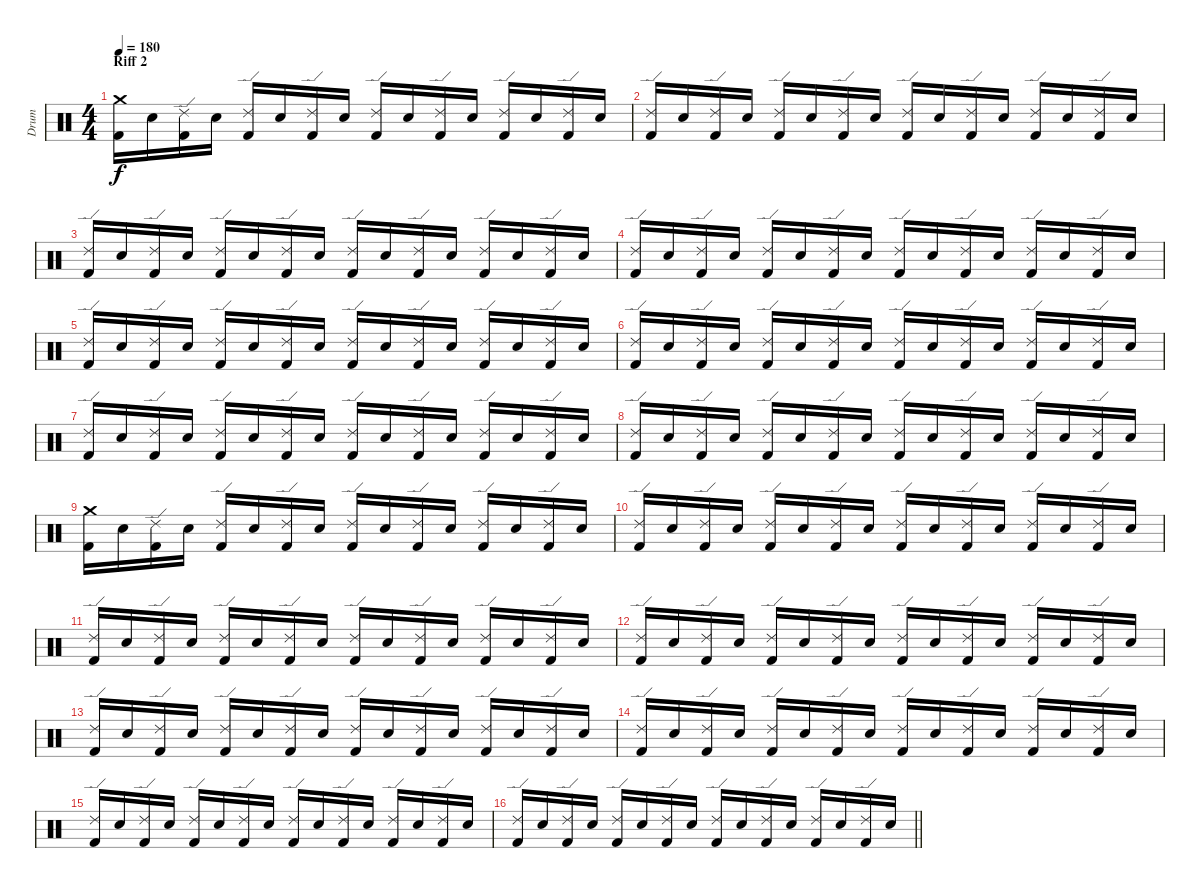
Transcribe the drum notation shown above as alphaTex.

\track ("Drum" "Drum") {instrument percussion}
\staff {score}
\articulation defaults
\ts (4 4)
\section ("" "Riff 2")
\tempo 180
\clef neutral
\ks c
("Crash medium (hit)" "Kick (hit) 2").16{dy f} "Electric Snare (hit)".16 ("Ride (edge) 2" "Kick (hit) 2").16 "Electric Snare (hit)".16 ("Ride (edge) 2" "Kick (hit) 2").16 "Electric Snare (hit)".16 ("Ride (edge) 2" "Kick (hit) 2").16 "Electric Snare (hit)".16 ("Ride (edge) 2" "Kick (hit) 2").16 "Electric Snare (hit)".16 ("Ride (edge) 2" "Kick (hit) 2").16 "Electric Snare (hit)".16 ("Ride (edge) 2" "Kick (hit) 2").16 "Electric Snare (hit)".16 ("Ride (edge) 2" "Kick (hit) 2").16 "Electric Snare (hit)".16 |
("Ride (edge) 2" "Kick (hit) 2").16 "Electric Snare (hit)".16 ("Ride (edge) 2" "Kick (hit) 2").16 "Electric Snare (hit)".16 ("Ride (edge) 2" "Kick (hit) 2").16 "Electric Snare (hit)".16 ("Ride (edge) 2" "Kick (hit) 2").16 "Electric Snare (hit)".16 ("Ride (edge) 2" "Kick (hit) 2").16 "Electric Snare (hit)".16 ("Ride (edge) 2" "Kick (hit) 2").16 "Electric Snare (hit)".16 ("Ride (edge) 2" "Kick (hit) 2").16 "Electric Snare (hit)".16 ("Ride (edge) 2" "Kick (hit) 2").16 "Electric Snare (hit)".16 |
("Ride (edge) 2" "Kick (hit) 2").16 "Electric Snare (hit)".16 ("Ride (edge) 2" "Kick (hit) 2").16 "Electric Snare (hit)".16 ("Ride (edge) 2" "Kick (hit) 2").16 "Electric Snare (hit)".16 ("Ride (edge) 2" "Kick (hit) 2").16 "Electric Snare (hit)".16 ("Ride (edge) 2" "Kick (hit) 2").16 "Electric Snare (hit)".16 ("Ride (edge) 2" "Kick (hit) 2").16 "Electric Snare (hit)".16 ("Ride (edge) 2" "Kick (hit) 2").16 "Electric Snare (hit)".16 ("Ride (edge) 2" "Kick (hit) 2").16 "Electric Snare (hit)".16 |
("Ride (edge) 2" "Kick (hit) 2").16 "Electric Snare (hit)".16 ("Ride (edge) 2" "Kick (hit) 2").16 "Electric Snare (hit)".16 ("Ride (edge) 2" "Kick (hit) 2").16 "Electric Snare (hit)".16 ("Ride (edge) 2" "Kick (hit) 2").16 "Electric Snare (hit)".16 ("Ride (edge) 2" "Kick (hit) 2").16 "Electric Snare (hit)".16 ("Ride (edge) 2" "Kick (hit) 2").16 "Electric Snare (hit)".16 ("Ride (edge) 2" "Kick (hit) 2").16 "Electric Snare (hit)".16 ("Ride (edge) 2" "Kick (hit) 2").16 "Electric Snare (hit)".16 |
("Ride (edge) 2" "Kick (hit) 2").16 "Electric Snare (hit)".16 ("Ride (edge) 2" "Kick (hit) 2").16 "Electric Snare (hit)".16 ("Ride (edge) 2" "Kick (hit) 2").16 "Electric Snare (hit)".16 ("Ride (edge) 2" "Kick (hit) 2").16 "Electric Snare (hit)".16 ("Ride (edge) 2" "Kick (hit) 2").16 "Electric Snare (hit)".16 ("Ride (edge) 2" "Kick (hit) 2").16 "Electric Snare (hit)".16 ("Ride (edge) 2" "Kick (hit) 2").16 "Electric Snare (hit)".16 ("Ride (edge) 2" "Kick (hit) 2").16 "Electric Snare (hit)".16 |
("Ride (edge) 2" "Kick (hit) 2").16 "Electric Snare (hit)".16 ("Ride (edge) 2" "Kick (hit) 2").16 "Electric Snare (hit)".16 ("Ride (edge) 2" "Kick (hit) 2").16 "Electric Snare (hit)".16 ("Ride (edge) 2" "Kick (hit) 2").16 "Electric Snare (hit)".16 ("Ride (edge) 2" "Kick (hit) 2").16 "Electric Snare (hit)".16 ("Ride (edge) 2" "Kick (hit) 2").16 "Electric Snare (hit)".16 ("Ride (edge) 2" "Kick (hit) 2").16 "Electric Snare (hit)".16 ("Ride (edge) 2" "Kick (hit) 2").16 "Electric Snare (hit)".16 |
("Ride (edge) 2" "Kick (hit) 2").16 "Electric Snare (hit)".16 ("Ride (edge) 2" "Kick (hit) 2").16 "Electric Snare (hit)".16 ("Ride (edge) 2" "Kick (hit) 2").16 "Electric Snare (hit)".16 ("Ride (edge) 2" "Kick (hit) 2").16 "Electric Snare (hit)".16 ("Ride (edge) 2" "Kick (hit) 2").16 "Electric Snare (hit)".16 ("Ride (edge) 2" "Kick (hit) 2").16 "Electric Snare (hit)".16 ("Ride (edge) 2" "Kick (hit) 2").16 "Electric Snare (hit)".16 ("Ride (edge) 2" "Kick (hit) 2").16 "Electric Snare (hit)".16 |
("Ride (edge) 2" "Kick (hit) 2").16 "Electric Snare (hit)".16 ("Ride (edge) 2" "Kick (hit) 2").16 "Electric Snare (hit)".16 ("Ride (edge) 2" "Kick (hit) 2").16 "Electric Snare (hit)".16 ("Ride (edge) 2" "Kick (hit) 2").16 "Electric Snare (hit)".16 ("Ride (edge) 2" "Kick (hit) 2").16 "Electric Snare (hit)".16 ("Ride (edge) 2" "Kick (hit) 2").16 "Electric Snare (hit)".16 ("Ride (edge) 2" "Kick (hit) 2").16 "Electric Snare (hit)".16 ("Ride (edge) 2" "Kick (hit) 2").16 "Electric Snare (hit)".16 |
("Crash medium (hit)" "Kick (hit) 2").16 "Electric Snare (hit)".16 ("Ride (edge) 2" "Kick (hit) 2").16 "Electric Snare (hit)".16 ("Ride (edge) 2" "Kick (hit) 2").16 "Electric Snare (hit)".16 ("Ride (edge) 2" "Kick (hit) 2").16 "Electric Snare (hit)".16 ("Ride (edge) 2" "Kick (hit) 2").16 "Electric Snare (hit)".16 ("Ride (edge) 2" "Kick (hit) 2").16 "Electric Snare (hit)".16 ("Ride (edge) 2" "Kick (hit) 2").16 "Electric Snare (hit)".16 ("Ride (edge) 2" "Kick (hit) 2").16 "Electric Snare (hit)".16 |
("Ride (edge) 2" "Kick (hit) 2").16 "Electric Snare (hit)".16 ("Ride (edge) 2" "Kick (hit) 2").16 "Electric Snare (hit)".16 ("Ride (edge) 2" "Kick (hit) 2").16 "Electric Snare (hit)".16 ("Ride (edge) 2" "Kick (hit) 2").16 "Electric Snare (hit)".16 ("Ride (edge) 2" "Kick (hit) 2").16 "Electric Snare (hit)".16 ("Ride (edge) 2" "Kick (hit) 2").16 "Electric Snare (hit)".16 ("Ride (edge) 2" "Kick (hit) 2").16 "Electric Snare (hit)".16 ("Ride (edge) 2" "Kick (hit) 2").16 "Electric Snare (hit)".16 |
("Ride (edge) 2" "Kick (hit) 2").16 "Electric Snare (hit)".16 ("Ride (edge) 2" "Kick (hit) 2").16 "Electric Snare (hit)".16 ("Ride (edge) 2" "Kick (hit) 2").16 "Electric Snare (hit)".16 ("Ride (edge) 2" "Kick (hit) 2").16 "Electric Snare (hit)".16 ("Ride (edge) 2" "Kick (hit) 2").16 "Electric Snare (hit)".16 ("Ride (edge) 2" "Kick (hit) 2").16 "Electric Snare (hit)".16 ("Ride (edge) 2" "Kick (hit) 2").16 "Electric Snare (hit)".16 ("Ride (edge) 2" "Kick (hit) 2").16 "Electric Snare (hit)".16 |
("Ride (edge) 2" "Kick (hit) 2").16 "Electric Snare (hit)".16 ("Ride (edge) 2" "Kick (hit) 2").16 "Electric Snare (hit)".16 ("Ride (edge) 2" "Kick (hit) 2").16 "Electric Snare (hit)".16 ("Ride (edge) 2" "Kick (hit) 2").16 "Electric Snare (hit)".16 ("Ride (edge) 2" "Kick (hit) 2").16 "Electric Snare (hit)".16 ("Ride (edge) 2" "Kick (hit) 2").16 "Electric Snare (hit)".16 ("Ride (edge) 2" "Kick (hit) 2").16 "Electric Snare (hit)".16 ("Ride (edge) 2" "Kick (hit) 2").16 "Electric Snare (hit)".16 |
("Ride (edge) 2" "Kick (hit) 2").16 "Electric Snare (hit)".16 ("Ride (edge) 2" "Kick (hit) 2").16 "Electric Snare (hit)".16 ("Ride (edge) 2" "Kick (hit) 2").16 "Electric Snare (hit)".16 ("Ride (edge) 2" "Kick (hit) 2").16 "Electric Snare (hit)".16 ("Ride (edge) 2" "Kick (hit) 2").16 "Electric Snare (hit)".16 ("Ride (edge) 2" "Kick (hit) 2").16 "Electric Snare (hit)".16 ("Ride (edge) 2" "Kick (hit) 2").16 "Electric Snare (hit)".16 ("Ride (edge) 2" "Kick (hit) 2").16 "Electric Snare (hit)".16 |
("Ride (edge) 2" "Kick (hit) 2").16 "Electric Snare (hit)".16 ("Ride (edge) 2" "Kick (hit) 2").16 "Electric Snare (hit)".16 ("Ride (edge) 2" "Kick (hit) 2").16 "Electric Snare (hit)".16 ("Ride (edge) 2" "Kick (hit) 2").16 "Electric Snare (hit)".16 ("Ride (edge) 2" "Kick (hit) 2").16 "Electric Snare (hit)".16 ("Ride (edge) 2" "Kick (hit) 2").16 "Electric Snare (hit)".16 ("Ride (edge) 2" "Kick (hit) 2").16 "Electric Snare (hit)".16 ("Ride (edge) 2" "Kick (hit) 2").16 "Electric Snare (hit)".16 |
("Ride (edge) 2" "Kick (hit) 2").16 "Electric Snare (hit)".16 ("Ride (edge) 2" "Kick (hit) 2").16 "Electric Snare (hit)".16 ("Ride (edge) 2" "Kick (hit) 2").16 "Electric Snare (hit)".16 ("Ride (edge) 2" "Kick (hit) 2").16 "Electric Snare (hit)".16 ("Ride (edge) 2" "Kick (hit) 2").16 "Electric Snare (hit)".16 ("Ride (edge) 2" "Kick (hit) 2").16 "Electric Snare (hit)".16 ("Ride (edge) 2" "Kick (hit) 2").16 "Electric Snare (hit)".16 ("Ride (edge) 2" "Kick (hit) 2").16 "Electric Snare (hit)".16 |
\barLineRight lightlight
("Ride (edge) 2" "Kick (hit) 2").16 "Electric Snare (hit)".16 ("Ride (edge) 2" "Kick (hit) 2").16 "Electric Snare (hit)".16 ("Ride (edge) 2" "Kick (hit) 2").16 "Electric Snare (hit)".16 ("Ride (edge) 2" "Kick (hit) 2").16 "Electric Snare (hit)".16 ("Ride (edge) 2" "Kick (hit) 2").16 "Electric Snare (hit)".16 ("Ride (edge) 2" "Kick (hit) 2").16 "Electric Snare (hit)".16 ("Ride (edge) 2" "Kick (hit) 2").16 "Electric Snare (hit)".16 ("Ride (edge) 2" "Kick (hit) 2").16 "Electric Snare (hit)".16
